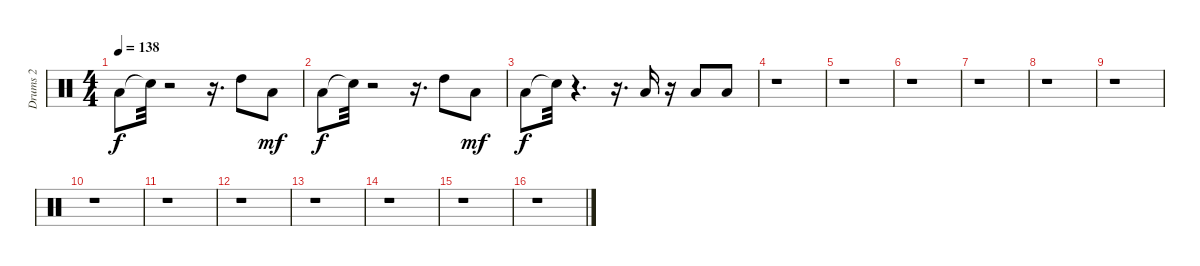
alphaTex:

\track ("Drums 2" "Drums 2") {instrument percussion}
\staff {score}
\articulation defaults
\ts (4 4)
\tempo 138
\clef neutral
\ks c "Low Floor Tom (hit)".8{dy f} "Snare (hit)"{t}.32
r.2 r.16{d} "High Tom (hit)".8 "Low Tom (hit)".8{dy mf} |
"Low Floor Tom (hit)".8{dy f} "Snare (hit)"{t}.32 r.2 r.16{d} "High Tom (hit)".8 "Low Tom (hit)".8{dy mf} |
"Low Floor Tom (hit)".8{dy f} "Snare (hit)"{t}.32 r.4{d} r.16{d} "Low Floor Tom (hit)".16 r.16 "Low Floor Tom (hit)".8 "Low Tom (hit)".8 |
r.1 |
r.1 |
r.1 |
r.1 |
r.1 |
r.1 |
r.1 |
r.1 |
r.1 |
r.1 |
r.1 |
r.1 |
r.1
